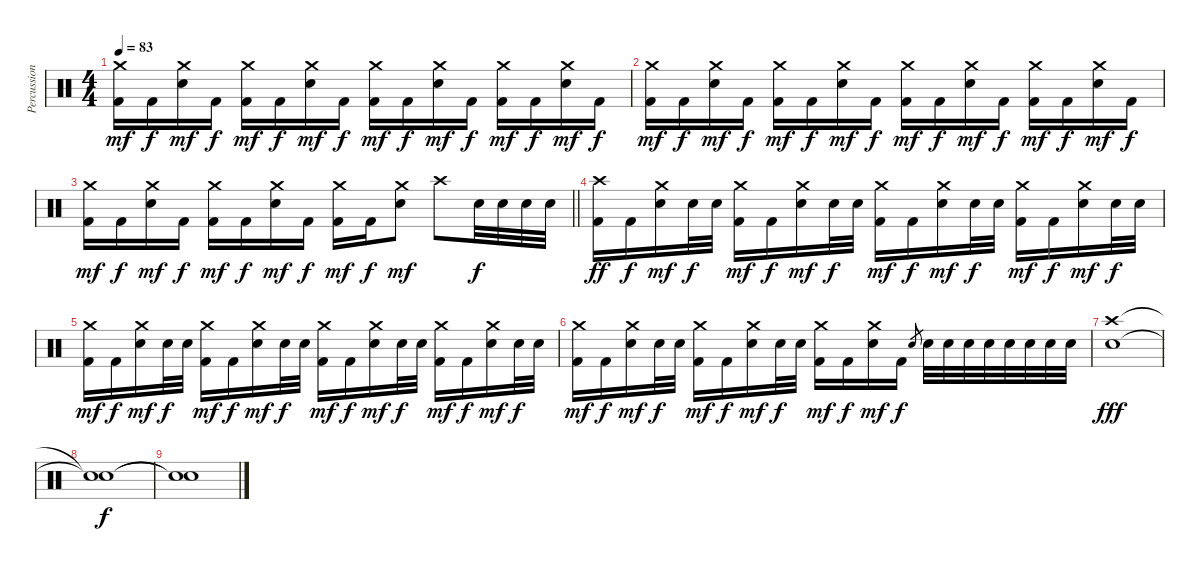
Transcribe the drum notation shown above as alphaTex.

\track ("Percussions" "Percussion") {instrument percussion}
\staff {score}
\articulation defaults
\ts (4 4)
\tempo 83
\clef neutral
\ks c
("Kick (hit) 2" "Crash medium (hit)").16{dy mf} "Kick (hit) 2".16{dy f} ("Electric Snare (hit)" "Crash medium (hit)").16{dy mf} "Kick (hit) 2".16{dy f} ("Kick (hit) 2" "Crash medium (hit)").16{dy mf} "Kick (hit) 2".16{dy f} ("Electric Snare (hit)" "Crash medium (hit)").16{dy mf} "Kick (hit) 2".16{dy f} ("Kick (hit) 2" "Crash medium (hit)").16{dy mf} "Kick (hit) 2".16{dy f} ("Electric Snare (hit)" "Crash medium (hit)").16{dy mf} "Kick (hit) 2".16{dy f} ("Kick (hit) 2" "Crash medium (hit)").16{dy mf} "Kick (hit) 2".16{dy f} ("Electric Snare (hit)" "Crash medium (hit)").16{dy mf} "Kick (hit) 2".16{dy f} |
("Kick (hit) 2" "Crash medium (hit)").16{dy mf} "Kick (hit) 2".16{dy f} ("Electric Snare (hit)" "Crash medium (hit)").16{dy mf} "Kick (hit) 2".16{dy f} ("Kick (hit) 2" "Crash medium (hit)").16{dy mf} "Kick (hit) 2".16{dy f} ("Electric Snare (hit)" "Crash medium (hit)").16{dy mf} "Kick (hit) 2".16{dy f} ("Kick (hit) 2" "Crash medium (hit)").16{dy mf} "Kick (hit) 2".16{dy f} ("Electric Snare (hit)" "Crash medium (hit)").16{dy mf} "Kick (hit) 2".16{dy f} ("Kick (hit) 2" "Crash medium (hit)").16{dy mf} "Kick (hit) 2".16{dy f} ("Electric Snare (hit)" "Crash medium (hit)").16{dy mf} "Kick (hit) 2".16{dy f} |
\barLineRight lightlight
("Kick (hit) 2" "Crash medium (hit)").16{dy mf} "Kick (hit) 2".16{dy f} ("Electric Snare (hit)" "Crash medium (hit)").16{dy mf} "Kick (hit) 2".16{dy f} ("Kick (hit) 2" "Crash medium (hit)").16{dy mf} "Kick (hit) 2".16{dy f} ("Electric Snare (hit)" "Crash medium (hit)").16{dy mf} "Kick (hit) 2".16{dy f} ("Kick (hit) 2" "Crash medium (hit)").16{dy mf} "Kick (hit) 2".16{dy f} ("Electric Snare (hit)" "Crash medium (hit)").8{dy mf} "Crash high (hit)".8 "Electric Snare (hit)".32{dy f} "Electric Snare (hit)".32 "Electric Snare (hit)".32 "Electric Snare (hit)".32 |
\section ("" "")
("Kick (hit) 2" "Crash high (hit)").16{dy ff} "Kick (hit) 2".16{dy f} ("Electric Snare (hit)" "Crash medium (hit)").16{dy mf} "Electric Snare (hit)".32{dy f} "Electric Snare (hit)".32 ("Kick (hit) 2" "Crash medium (hit)").16{dy mf} "Kick (hit) 2".16{dy f} ("Electric Snare (hit)" "Crash medium (hit)").16{dy mf} "Electric Snare (hit)".32{dy f} "Electric Snare (hit)".32 ("Kick (hit) 2" "Crash medium (hit)").16{dy mf} "Kick (hit) 2".16{dy f} ("Electric Snare (hit)" "Crash medium (hit)").16{dy mf} "Electric Snare (hit)".32{dy f} "Electric Snare (hit)".32 ("Kick (hit) 2" "Crash medium (hit)").16{dy mf} "Kick (hit) 2".16{dy f} ("Electric Snare (hit)" "Crash medium (hit)").16{dy mf} "Electric Snare (hit)".32{dy f} "Electric Snare (hit)".32 |
("Kick (hit) 2" "Crash medium (hit)").16{dy mf} "Kick (hit) 2".16{dy f} ("Electric Snare (hit)" "Crash medium (hit)").16{dy mf} "Electric Snare (hit)".32{dy f} "Electric Snare (hit)".32 ("Kick (hit) 2" "Crash medium (hit)").16{dy mf} "Kick (hit) 2".16{dy f} ("Electric Snare (hit)" "Crash medium (hit)").16{dy mf} "Electric Snare (hit)".32{dy f} "Electric Snare (hit)".32 ("Kick (hit) 2" "Crash medium (hit)").16{dy mf} "Kick (hit) 2".16{dy f} ("Electric Snare (hit)" "Crash medium (hit)").16{dy mf} "Electric Snare (hit)".32{dy f} "Electric Snare (hit)".32 ("Kick (hit) 2" "Crash medium (hit)").16{dy mf} "Kick (hit) 2".16{dy f} ("Electric Snare (hit)" "Crash medium (hit)").16{dy mf} "Electric Snare (hit)".32{dy f} "Electric Snare (hit)".32 |
("Kick (hit) 2" "Crash medium (hit)").16{dy mf} "Kick (hit) 2".16{dy f} ("Electric Snare (hit)" "Crash medium (hit)").16{dy mf} "Electric Snare (hit)".32{dy f} "Electric Snare (hit)".32 ("Kick (hit) 2" "Crash medium (hit)").16{dy mf} "Kick (hit) 2".16{dy f} ("Electric Snare (hit)" "Crash medium (hit)").16{dy mf} "Electric Snare (hit)".32{dy f} "Electric Snare (hit)".32 ("Kick (hit) 2" "Crash medium (hit)").16{dy mf} "Kick (hit) 2".16{dy f} ("Electric Snare (hit)" "Crash medium (hit)").16{dy mf} "Kick (hit) 2".16{dy f} "Electric Snare (hit)".8{gr} "Electric Snare (hit)".32 "Electric Snare (hit)".32 "Electric Snare (hit)".32 "Electric Snare (hit)".32 "Electric Snare (hit)".32 "Electric Snare (hit)".32 "Electric Snare (hit)".32 "Electric Snare (hit)".32 |
("Electric Snare (hit)" "Crash high (hit)").1{dy fff} |
("Snare (hit)"{t} "Snare (hit)"{t}).1{dy f} |
("Snare (hit)"{t} "Snare (hit)"{t}).1
